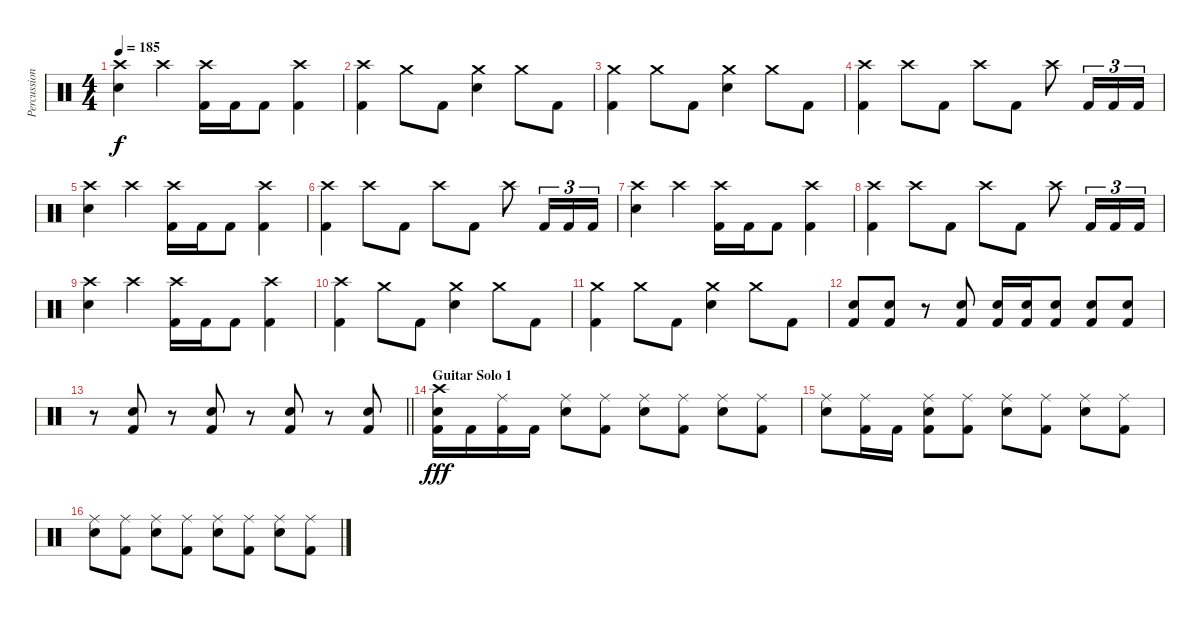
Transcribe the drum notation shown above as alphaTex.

\track ("Percussion" "Percussion") {instrument percussion}
\staff {score}
\articulation defaults
\ts (4 4)
\tempo 185
\clef neutral
\ks c
("Crash high (hit)" "Electric Snare (hit)").4{dy f} "Crash high (hit)".4 ("Crash high (hit)" "Kick (hit) 2").16 "Kick (hit) 2".16 "Kick (hit) 2".8 ("Crash high (hit)" "Kick (hit) 2").4 |
("Crash high (hit)" "Kick (hit) 2").4 "Crash medium (hit)".8 "Kick (hit) 2".8 ("Crash medium (hit)" "Electric Snare (hit)").4 "Crash medium (hit)".8 "Kick (hit) 2".8 |
("Crash medium (hit)" "Kick (hit) 2").4 "Crash medium (hit)".8 "Kick (hit) 2".8 ("Crash medium (hit)" "Electric Snare (hit)").4 "Crash medium (hit)".8 "Kick (hit) 2".8 |
("Crash high (hit)" "Kick (hit) 2").4 "Crash high (hit)".8 "Kick (hit) 2".8 "Crash high (hit)".8 "Kick (hit) 2".8 "Crash high (hit)".8 "Kick (hit) 2".16{tu (3 2)} "Kick (hit) 2".16{tu (3 2)} "Kick (hit) 2".16{tu (3 2)} |
("Crash high (hit)" "Electric Snare (hit)").4 "Crash high (hit)".4 ("Crash high (hit)" "Kick (hit) 2").16 "Kick (hit) 2".16 "Kick (hit) 2".8 ("Crash high (hit)" "Kick (hit) 2").4 |
("Crash high (hit)" "Kick (hit) 2").4 "Crash high (hit)".8 "Kick (hit) 2".8 "Crash high (hit)".8 "Kick (hit) 2".8 "Crash high (hit)".8 "Kick (hit) 2".16{tu (3 2)} "Kick (hit) 2".16{tu (3 2)} "Kick (hit) 2".16{tu (3 2)} |
("Crash high (hit)" "Electric Snare (hit)").4 "Crash high (hit)".4 ("Crash high (hit)" "Kick (hit) 2").16 "Kick (hit) 2".16 "Kick (hit) 2".8 ("Crash high (hit)" "Kick (hit) 2").4 |
("Crash high (hit)" "Kick (hit) 2").4 "Crash high (hit)".8 "Kick (hit) 2".8 "Crash high (hit)".8 "Kick (hit) 2".8 "Crash high (hit)".8 "Kick (hit) 2".16{tu (3 2)} "Kick (hit) 2".16{tu (3 2)} "Kick (hit) 2".16{tu (3 2)} |
("Crash high (hit)" "Electric Snare (hit)").4 "Crash high (hit)".4 ("Crash high (hit)" "Kick (hit) 2").16 "Kick (hit) 2".16 "Kick (hit) 2".8 ("Crash high (hit)" "Kick (hit) 2").4 |
("Crash high (hit)" "Kick (hit) 2").4 "Crash medium (hit)".8 "Kick (hit) 2".8 ("Crash medium (hit)" "Electric Snare (hit)").4 "Crash medium (hit)".8 "Kick (hit) 2".8 |
("Crash medium (hit)" "Kick (hit) 2").4 "Crash medium (hit)".8 "Kick (hit) 2".8 ("Crash medium (hit)" "Electric Snare (hit)").4 "Crash medium (hit)".8 "Kick (hit) 2".8 |
("Electric Snare (hit)" "Kick (hit) 2").8 ("Electric Snare (hit)" "Kick (hit) 2").8 r.8 ("Electric Snare (hit)" "Kick (hit) 2").8 ("Electric Snare (hit)" "Kick (hit) 2").16 ("Electric Snare (hit)" "Kick (hit) 2").16 ("Electric Snare (hit)" "Kick (hit) 2").8 ("Electric Snare (hit)" "Kick (hit) 2").8 ("Electric Snare (hit)" "Kick (hit) 2").8 |
\barLineRight lightlight
r.8 ("Electric Snare (hit)" "Kick (hit) 2").8 r.8 ("Electric Snare (hit)" "Kick (hit) 2").8 r.8 ("Electric Snare (hit)" "Kick (hit) 2").8 r.8 ("Electric Snare (hit)" "Kick (hit) 2").8 |
\section ("" "Guitar Solo 1")
("Crash high (hit)" "Electric Snare (hit)" "Kick (hit) 2").16{dy fff} "Kick (hit) 2".16 ("Ride (middle)" "Kick (hit) 2").16 "Kick (hit) 2".16 ("Ride (middle)" "Electric Snare (hit)").8 ("Ride (middle)" "Kick (hit) 2").8 ("Ride (middle)" "Electric Snare (hit)").8 ("Ride (middle)" "Kick (hit) 2").8 ("Ride (middle)" "Electric Snare (hit)").8 ("Ride (middle)" "Kick (hit) 2").8 |
("Ride (middle)" "Electric Snare (hit)").8 ("Ride (middle)" "Kick (hit) 2").16 "Kick (hit) 2".16 ("Ride (middle)" "Electric Snare (hit)" "Kick (hit) 2").8 ("Ride (middle)" "Kick (hit) 2").8 ("Ride (middle)" "Electric Snare (hit)").8 ("Ride (middle)" "Kick (hit) 2").8 ("Ride (middle)" "Electric Snare (hit)").8 ("Ride (middle)" "Kick (hit) 2").8 |
("Ride (middle)" "Electric Snare (hit)").8 ("Ride (middle)" "Kick (hit) 2").8 ("Ride (middle)" "Electric Snare (hit)").8 ("Ride (middle)" "Kick (hit) 2").8 ("Ride (middle)" "Electric Snare (hit)").8 ("Ride (middle)" "Kick (hit) 2").8 ("Ride (middle)" "Electric Snare (hit)").8 ("Ride (middle)" "Kick (hit) 2").8
